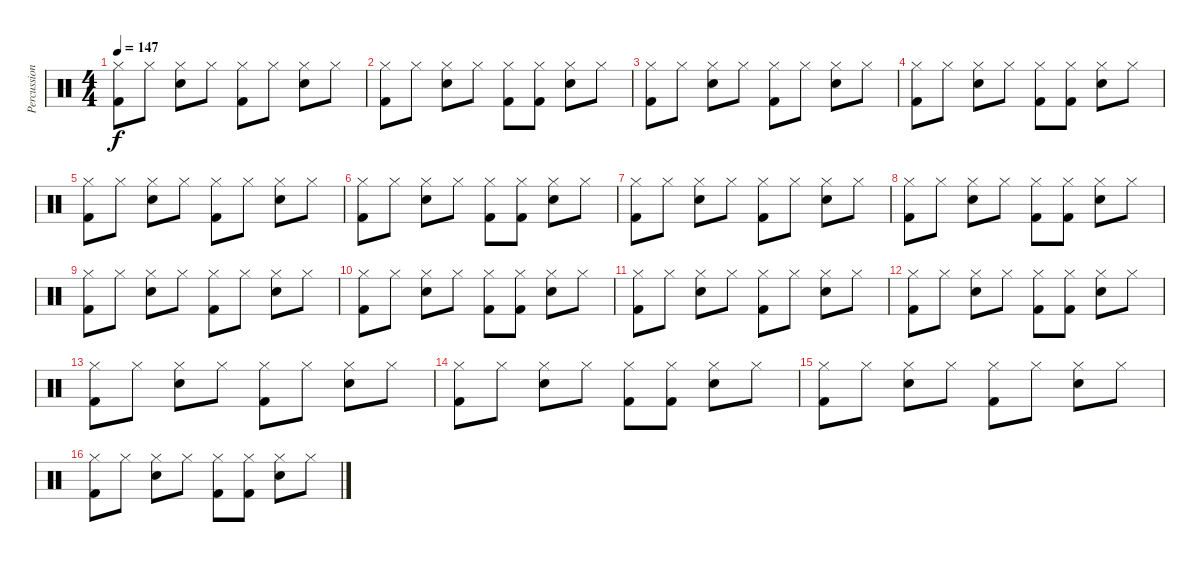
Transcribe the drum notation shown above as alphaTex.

\track ("Percussions" "Percussion") {instrument percussion}
\staff {score}
\articulation defaults
\ts (4 4)
\tempo 147
\clef neutral
\ks c
("Kick (hit) 2" "Hi-Hat (closed)").8{dy f} "Hi-Hat (closed)".8 ("Electric Snare (hit)" "Hi-Hat (closed)").8 "Hi-Hat (closed)".8 ("Kick (hit) 2" "Hi-Hat (closed)").8 "Hi-Hat (closed)".8 ("Electric Snare (hit)" "Hi-Hat (closed)").8 "Hi-Hat (closed)".8 |
("Kick (hit) 2" "Hi-Hat (closed)").8 "Hi-Hat (closed)".8 ("Electric Snare (hit)" "Hi-Hat (closed)").8 "Hi-Hat (closed)".8 ("Kick (hit) 2" "Hi-Hat (closed)").8 ("Kick (hit) 2" "Hi-Hat (closed)").8 ("Electric Snare (hit)" "Hi-Hat (closed)").8 "Hi-Hat (closed)".8 |
("Kick (hit) 2" "Hi-Hat (closed)").8 "Hi-Hat (closed)".8 ("Electric Snare (hit)" "Hi-Hat (closed)").8 "Hi-Hat (closed)".8 ("Kick (hit) 2" "Hi-Hat (closed)").8 "Hi-Hat (closed)".8 ("Electric Snare (hit)" "Hi-Hat (closed)").8 "Hi-Hat (closed)".8 |
("Kick (hit) 2" "Hi-Hat (closed)").8 "Hi-Hat (closed)".8 ("Electric Snare (hit)" "Hi-Hat (closed)").8 "Hi-Hat (closed)".8 ("Kick (hit) 2" "Hi-Hat (closed)").8 ("Kick (hit) 2" "Hi-Hat (closed)").8 ("Electric Snare (hit)" "Hi-Hat (closed)").8 "Hi-Hat (closed)".8 |
("Kick (hit) 2" "Hi-Hat (closed)").8 "Hi-Hat (closed)".8 ("Electric Snare (hit)" "Hi-Hat (closed)").8 "Hi-Hat (closed)".8 ("Kick (hit) 2" "Hi-Hat (closed)").8 "Hi-Hat (closed)".8 ("Electric Snare (hit)" "Hi-Hat (closed)").8 "Hi-Hat (closed)".8 |
("Kick (hit) 2" "Hi-Hat (closed)").8 "Hi-Hat (closed)".8 ("Electric Snare (hit)" "Hi-Hat (closed)").8 "Hi-Hat (closed)".8 ("Kick (hit) 2" "Hi-Hat (closed)").8 ("Kick (hit) 2" "Hi-Hat (closed)").8 ("Electric Snare (hit)" "Hi-Hat (closed)").8 "Hi-Hat (closed)".8 |
("Kick (hit) 2" "Hi-Hat (closed)").8 "Hi-Hat (closed)".8 ("Electric Snare (hit)" "Hi-Hat (closed)").8 "Hi-Hat (closed)".8 ("Kick (hit) 2" "Hi-Hat (closed)").8 "Hi-Hat (closed)".8 ("Electric Snare (hit)" "Hi-Hat (closed)").8 "Hi-Hat (closed)".8 |
("Kick (hit) 2" "Hi-Hat (closed)").8 "Hi-Hat (closed)".8 ("Electric Snare (hit)" "Hi-Hat (closed)").8 "Hi-Hat (closed)".8 ("Kick (hit) 2" "Hi-Hat (closed)").8 ("Kick (hit) 2" "Hi-Hat (closed)").8 ("Electric Snare (hit)" "Hi-Hat (closed)").8 "Hi-Hat (closed)".8 |
("Kick (hit) 2" "Hi-Hat (closed)").8 "Hi-Hat (closed)".8 ("Electric Snare (hit)" "Hi-Hat (closed)").8 "Hi-Hat (closed)".8 ("Kick (hit) 2" "Hi-Hat (closed)").8 "Hi-Hat (closed)".8 ("Electric Snare (hit)" "Hi-Hat (closed)").8 "Hi-Hat (closed)".8 |
("Kick (hit) 2" "Hi-Hat (closed)").8 "Hi-Hat (closed)".8 ("Electric Snare (hit)" "Hi-Hat (closed)").8 "Hi-Hat (closed)".8 ("Kick (hit) 2" "Hi-Hat (closed)").8 ("Kick (hit) 2" "Hi-Hat (closed)").8 ("Electric Snare (hit)" "Hi-Hat (closed)").8 "Hi-Hat (closed)".8 |
("Kick (hit) 2" "Hi-Hat (closed)").8 "Hi-Hat (closed)".8 ("Electric Snare (hit)" "Hi-Hat (closed)").8 "Hi-Hat (closed)".8 ("Kick (hit) 2" "Hi-Hat (closed)").8 "Hi-Hat (closed)".8 ("Electric Snare (hit)" "Hi-Hat (closed)").8 "Hi-Hat (closed)".8 |
("Kick (hit) 2" "Hi-Hat (closed)").8 "Hi-Hat (closed)".8 ("Electric Snare (hit)" "Hi-Hat (closed)").8 "Hi-Hat (closed)".8 ("Kick (hit) 2" "Hi-Hat (closed)").8 ("Kick (hit) 2" "Hi-Hat (closed)").8 ("Electric Snare (hit)" "Hi-Hat (closed)").8 "Hi-Hat (closed)".8 |
("Kick (hit) 2" "Hi-Hat (closed)").8 "Hi-Hat (closed)".8 ("Electric Snare (hit)" "Hi-Hat (closed)").8 "Hi-Hat (closed)".8 ("Kick (hit) 2" "Hi-Hat (closed)").8 "Hi-Hat (closed)".8 ("Electric Snare (hit)" "Hi-Hat (closed)").8 "Hi-Hat (closed)".8 |
("Kick (hit) 2" "Hi-Hat (closed)").8 "Hi-Hat (closed)".8 ("Electric Snare (hit)" "Hi-Hat (closed)").8 "Hi-Hat (closed)".8 ("Kick (hit) 2" "Hi-Hat (closed)").8 ("Kick (hit) 2" "Hi-Hat (closed)").8 ("Electric Snare (hit)" "Hi-Hat (closed)").8 "Hi-Hat (closed)".8 |
("Kick (hit) 2" "Hi-Hat (closed)").8 "Hi-Hat (closed)".8 ("Electric Snare (hit)" "Hi-Hat (closed)").8 "Hi-Hat (closed)".8 ("Kick (hit) 2" "Hi-Hat (closed)").8 "Hi-Hat (closed)".8 ("Electric Snare (hit)" "Hi-Hat (closed)").8 "Hi-Hat (closed)".8 |
("Kick (hit) 2" "Hi-Hat (closed)").8 "Hi-Hat (closed)".8 ("Electric Snare (hit)" "Hi-Hat (closed)").8 "Hi-Hat (closed)".8 ("Kick (hit) 2" "Hi-Hat (closed)").8 ("Kick (hit) 2" "Hi-Hat (closed)").8 ("Electric Snare (hit)" "Hi-Hat (closed)").8 "Hi-Hat (closed)".8
